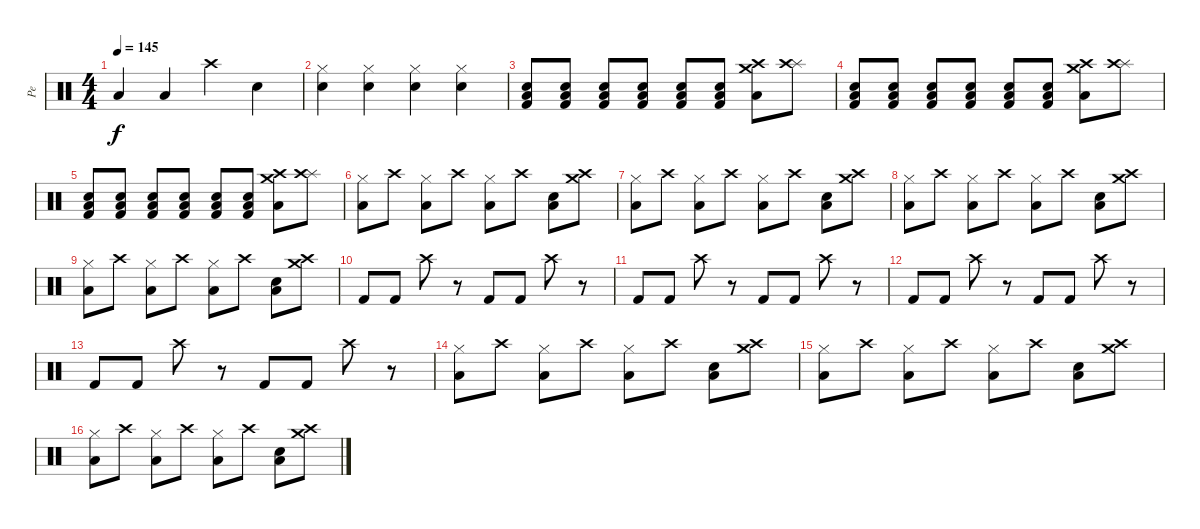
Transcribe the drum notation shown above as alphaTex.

\track ("Pe" "Pe") {instrument percussion}
\staff {score}
\articulation defaults
\ts (4 4)
\tempo 145
\clef neutral
\ks c "Low Tom (hit)".4{dy f} "Low Floor Tom (hit)".4 "Crash high (hit)".4 "Electric Snare (hit)".4
|
("Electric Snare (hit)" "Hi-Hat (closed)").4 ("Electric Snare (hit)" "Hi-Hat (closed)").4 ("Electric Snare (hit)" "Hi-Hat (closed)").4 ("Electric Snare (hit)" "Hi-Hat (closed)").4 |
("Electric Snare (hit)" "Kick (hit) 2" "Low Tom (hit)").8 ("Electric Snare (hit)" "Kick (hit) 2" "Low Tom (hit)").8 ("Electric Snare (hit)" "Kick (hit) 2" "Low Tom (hit)").8 ("Electric Snare (hit)" "Kick (hit) 2" "Low Tom (hit)").8 ("Electric Snare (hit)" "Kick (hit) 2" "Low Tom (hit)").8 ("Electric Snare (hit)" "Kick (hit) 2" "Low Tom (hit)").8 ("Crash medium (hit)" "Crash high (hit)" "Low Tom (hit)").8 ("Splash (hit)" "Crash high (hit)").8 |
("Electric Snare (hit)" "Kick (hit) 2" "Low Tom (hit)").8 ("Electric Snare (hit)" "Kick (hit) 2" "Low Tom (hit)").8 ("Electric Snare (hit)" "Kick (hit) 2" "Low Tom (hit)").8 ("Electric Snare (hit)" "Kick (hit) 2" "Low Tom (hit)").8 ("Electric Snare (hit)" "Kick (hit) 2" "Low Tom (hit)").8 ("Electric Snare (hit)" "Kick (hit) 2" "Low Tom (hit)").8 ("Crash medium (hit)" "Crash high (hit)" "Low Tom (hit)").8 ("Splash (hit)" "Crash high (hit)").8 |
("Electric Snare (hit)" "Kick (hit) 2" "Low Tom (hit)").8 ("Electric Snare (hit)" "Kick (hit) 2" "Low Tom (hit)").8 ("Electric Snare (hit)" "Kick (hit) 2" "Low Tom (hit)").8 ("Electric Snare (hit)" "Kick (hit) 2" "Low Tom (hit)").8 ("Electric Snare (hit)" "Kick (hit) 2" "Low Tom (hit)").8 ("Electric Snare (hit)" "Kick (hit) 2" "Low Tom (hit)").8 ("Crash medium (hit)" "Crash high (hit)" "Low Tom (hit)").8 ("Splash (hit)" "Crash high (hit)").8 |
("Hi-Hat (closed)" "Low Floor Tom (hit)").8 "Crash high (hit)".8 ("Hi-Hat (closed)" "Low Floor Tom (hit)").8 "Crash high (hit)".8 ("Hi-Hat (closed)" "Low Floor Tom (hit)").8 "Crash high (hit)".8 ("Electric Snare (hit)" "Low Tom (hit)").8 ("Crash high (hit)" "Crash medium (hit)").8 |
("Hi-Hat (closed)" "Low Floor Tom (hit)").8 "Crash high (hit)".8 ("Hi-Hat (closed)" "Low Floor Tom (hit)").8 "Crash high (hit)".8 ("Hi-Hat (closed)" "Low Floor Tom (hit)").8 "Crash high (hit)".8 ("Electric Snare (hit)" "Low Tom (hit)").8 ("Crash high (hit)" "Crash medium (hit)").8 |
("Hi-Hat (closed)" "Low Floor Tom (hit)").8 "Crash high (hit)".8 ("Hi-Hat (closed)" "Low Floor Tom (hit)").8 "Crash high (hit)".8 ("Hi-Hat (closed)" "Low Floor Tom (hit)").8 "Crash high (hit)".8 ("Electric Snare (hit)" "Low Tom (hit)").8 ("Crash high (hit)" "Crash medium (hit)").8 |
("Hi-Hat (closed)" "Low Floor Tom (hit)").8 "Crash high (hit)".8 ("Hi-Hat (closed)" "Low Floor Tom (hit)").8 "Crash high (hit)".8 ("Hi-Hat (closed)" "Low Floor Tom (hit)").8 "Crash high (hit)".8 ("Electric Snare (hit)" "Low Tom (hit)").8 ("Crash high (hit)" "Crash medium (hit)").8 |
"Kick (hit) 2".8 "Kick (hit) 2".8 "Crash high (hit)".8 r.8 "Kick (hit) 2".8 "Kick (hit) 2".8 "Crash high (hit)".8 r.8 |
"Kick (hit) 2".8 "Kick (hit) 2".8 "Crash high (hit)".8 r.8 "Kick (hit) 2".8 "Kick (hit) 2".8 "Crash high (hit)".8 r.8 |
"Kick (hit) 2".8 "Kick (hit) 2".8 "Crash high (hit)".8 r.8 "Kick (hit) 2".8 "Kick (hit) 2".8 "Crash high (hit)".8 r.8 |
"Kick (hit) 2".8 "Kick (hit) 2".8 "Crash high (hit)".8 r.8 "Kick (hit) 2".8 "Kick (hit) 2".8 "Crash high (hit)".8 r.8 |
("Hi-Hat (closed)" "Low Floor Tom (hit)").8 "Crash high (hit)".8 ("Hi-Hat (closed)" "Low Floor Tom (hit)").8 "Crash high (hit)".8 ("Hi-Hat (closed)" "Low Floor Tom (hit)").8 "Crash high (hit)".8 ("Electric Snare (hit)" "Low Tom (hit)").8 ("Crash high (hit)" "Crash medium (hit)").8 |
("Hi-Hat (closed)" "Low Floor Tom (hit)").8 "Crash high (hit)".8 ("Hi-Hat (closed)" "Low Floor Tom (hit)").8 "Crash high (hit)".8 ("Hi-Hat (closed)" "Low Floor Tom (hit)").8 "Crash high (hit)".8 ("Electric Snare (hit)" "Low Tom (hit)").8 ("Crash high (hit)" "Crash medium (hit)").8 |
("Hi-Hat (closed)" "Low Floor Tom (hit)").8 "Crash high (hit)".8 ("Hi-Hat (closed)" "Low Floor Tom (hit)").8 "Crash high (hit)".8 ("Hi-Hat (closed)" "Low Floor Tom (hit)").8 "Crash high (hit)".8 ("Electric Snare (hit)" "Low Tom (hit)").8 ("Crash high (hit)" "Crash medium (hit)").8
